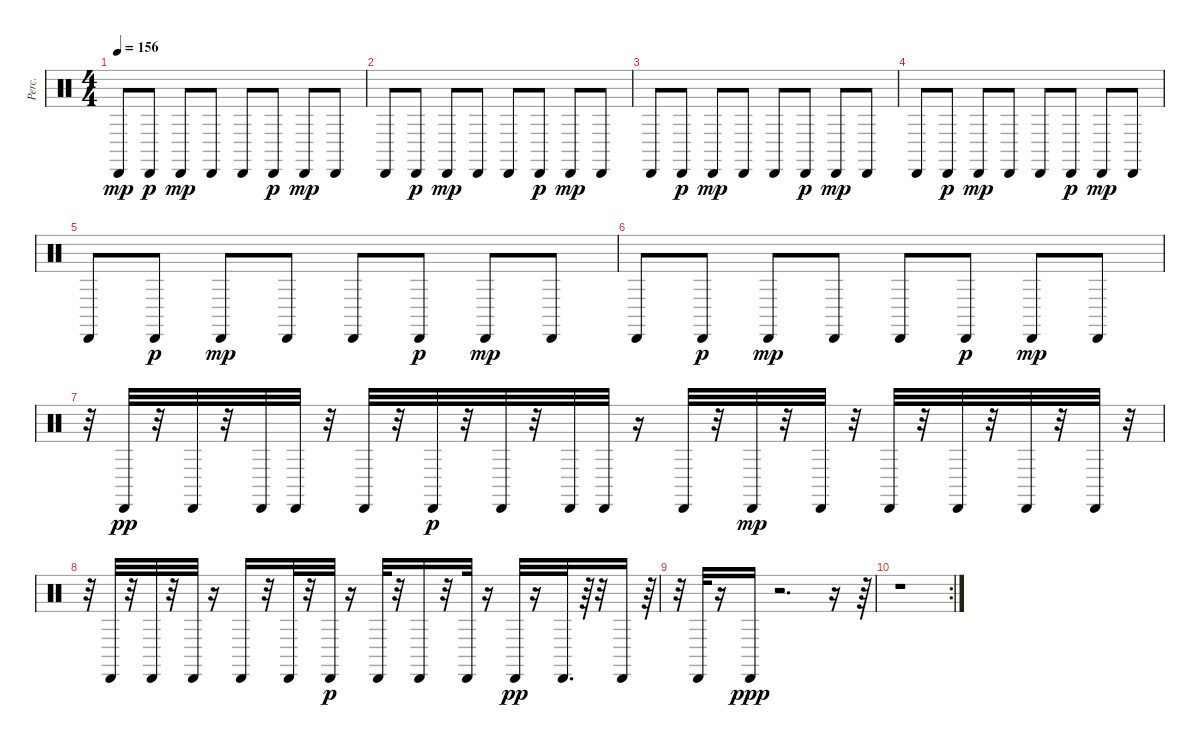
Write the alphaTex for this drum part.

\track ("Perc." "Perc.") {instrument percussion}
\staff {score}
\articulation defaults
\ts (4 4)
\tempo 156
\clef neutral
\ks c "Cabasa (hit)".8{dy mp} "Cabasa (hit)".8{dy p} "Cabasa (hit)".8{dy mp} "Cabasa (hit)".8 "Cabasa (hit)".8 "Cabasa (hit)".8{dy p} "Cabasa (hit)".8{dy mp} "Cabasa (hit)".8
|
"Cabasa (hit)".8 "Cabasa (hit)".8{dy p} "Cabasa (hit)".8{dy mp} "Cabasa (hit)".8 "Cabasa (hit)".8 "Cabasa (hit)".8{dy p} "Cabasa (hit)".8{dy mp} "Cabasa (hit)".8 |
"Cabasa (hit)".8 "Cabasa (hit)".8{dy p} "Cabasa (hit)".8{dy mp} "Cabasa (hit)".8 "Cabasa (hit)".8 "Cabasa (hit)".8{dy p} "Cabasa (hit)".8{dy mp} "Cabasa (hit)".8 |
"Cabasa (hit)".8 "Cabasa (hit)".8{dy p} "Cabasa (hit)".8{dy mp} "Cabasa (hit)".8 "Cabasa (hit)".8 "Cabasa (hit)".8{dy p} "Cabasa (hit)".8{dy mp} "Cabasa (hit)".8 |
"Cabasa (hit)".8 "Cabasa (hit)".8{dy p} "Cabasa (hit)".8{dy mp} "Cabasa (hit)".8 "Cabasa (hit)".8 "Cabasa (hit)".8{dy p} "Cabasa (hit)".8{dy mp} "Cabasa (hit)".8 |
"Cabasa (hit)".8 "Cabasa (hit)".8{dy p} "Cabasa (hit)".8{dy mp} "Cabasa (hit)".8 "Cabasa (hit)".8 "Cabasa (hit)".8{dy p} "Cabasa (hit)".8{dy mp} "Cabasa (hit)".8 |
r.32 "Cabasa (hit)".32{dy pp} r.32 "Cabasa (hit)".32 r.32 "Cabasa (hit)".32 "Cabasa (hit)".32 r.32 "Cabasa (hit)".32 r.32 "Cabasa (hit)".32{dy p} r.32 "Cabasa (hit)".32 r.32 "Cabasa (hit)".32 "Cabasa (hit)".32 r.16 "Cabasa (hit)".32 r.32 "Cabasa (hit)".32{dy mp} r.32 "Cabasa (hit)".32 r.32 "Cabasa (hit)".32 r.32 "Cabasa (hit)".32 r.32 "Cabasa (hit)".32 r.32 "Cabasa (hit)".32 r.32 |
r.32 "Cabasa (hit)".32 r.32 "Cabasa (hit)".32 r.32 "Cabasa (hit)".32 r.16 "Cabasa (hit)".16 r.32 "Cabasa (hit)".32 r.32 "Cabasa (hit)".32{dy p} r.16 "Cabasa (hit)".32 r.32 "Cabasa (hit)".16 r.32 "Cabasa (hit)".32 r.16 "Cabasa (hit)".32{dy pp} r.16 "Cabasa (hit)".32{d} r.64 r.32 "Cabasa (hit)".16 r.64{tu (3 2)} |
r.32{tu (3 2)} "Cabasa (hit)".32 r.16 "Cabasa (hit)".16{dy ppp} r.2{d} r.16 r.64{tu (3 2)} |
\rc 2
r.1
